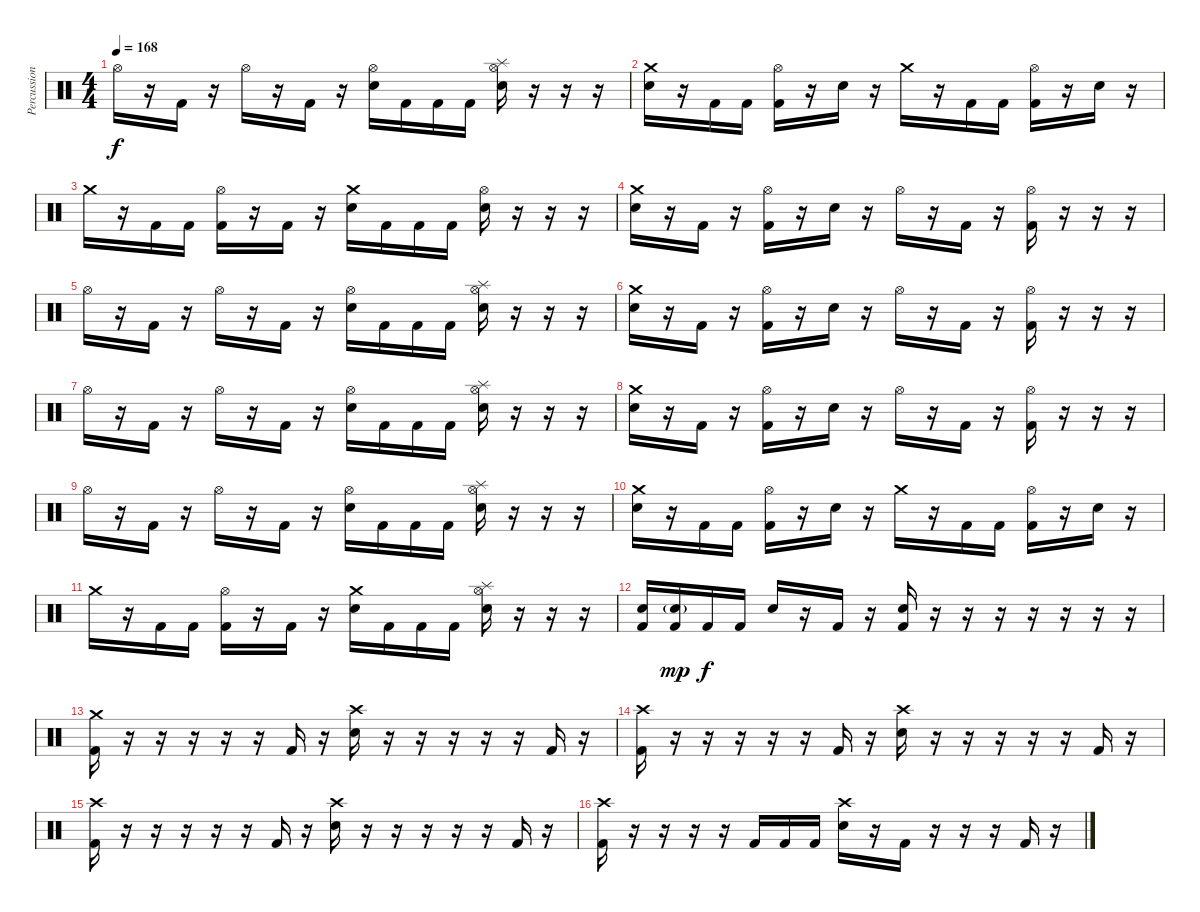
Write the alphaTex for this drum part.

\track ("Percussion" "Percussion") {instrument percussion}
\staff {score}
\articulation defaults
\ts (4 4)
\tempo 168
\clef neutral
\ks c "Hi-Hat (open)".16{dy f}
r.16 "Kick (hit) 2".16 r.16 "Hi-Hat (open)".16 r.16 "Kick (hit) 2".16 r.16 ("Hi-Hat (open)" "Electric Snare (hit)").16 "Kick (hit) 2".16 "Kick (hit) 2".16 "Kick (hit) 2".16 ("Hi-Hat (open)" "Splash (hit)" "Electric Snare (hit)").16 r.16 r.16 r.16 |
("Crash medium (hit)" "Electric Snare (hit)").16 r.16 "Kick (hit) 2".16 "Kick (hit) 2".16 ("Hi-Hat (open)" "Kick (hit) 2").16 r.16 "Electric Snare (hit)".16 r.16 "Crash medium (hit)".16 r.16 "Kick (hit) 2".16 "Kick (hit) 2".16 ("Hi-Hat (open)" "Kick (hit) 2").16 r.16 "Electric Snare (hit)".16 r.16 |
"Crash medium (hit)".16 r.16 "Kick (hit) 2".16 "Kick (hit) 2".16 ("Hi-Hat (open)" "Kick (hit) 2").16 r.16 "Kick (hit) 2".16 r.16 ("Crash medium (hit)" "Electric Snare (hit)").16 "Kick (hit) 2".16 "Kick (hit) 2".16 "Kick (hit) 2".16 ("Hi-Hat (open)" "Electric Snare (hit)").16 r.16 r.16 r.16 |
("Crash medium (hit)" "Electric Snare (hit)").16 r.16 "Kick (hit) 2".16 r.16 ("Hi-Hat (open)" "Kick (hit) 2").16 r.16 "Electric Snare (hit)".16 r.16 "Hi-Hat (open)".16 r.16 "Kick (hit) 2".16 r.16 ("Hi-Hat (open)" "Kick (hit) 2").16 r.16 r.16 r.16 |
"Hi-Hat (open)".16 r.16 "Kick (hit) 2".16 r.16 "Hi-Hat (open)".16 r.16 "Kick (hit) 2".16 r.16 ("Hi-Hat (open)" "Electric Snare (hit)").16 "Kick (hit) 2".16 "Kick (hit) 2".16 "Kick (hit) 2".16 ("Hi-Hat (open)" "Splash (hit)" "Electric Snare (hit)").16 r.16 r.16 r.16 |
("Crash medium (hit)" "Electric Snare (hit)").16 r.16 "Kick (hit) 2".16 r.16 ("Hi-Hat (open)" "Kick (hit) 2").16 r.16 "Electric Snare (hit)".16 r.16 "Hi-Hat (open)".16 r.16 "Kick (hit) 2".16 r.16 ("Hi-Hat (open)" "Kick (hit) 2").16 r.16 r.16 r.16 |
"Hi-Hat (open)".16 r.16 "Kick (hit) 2".16 r.16 "Hi-Hat (open)".16 r.16 "Kick (hit) 2".16 r.16 ("Hi-Hat (open)" "Electric Snare (hit)").16 "Kick (hit) 2".16 "Kick (hit) 2".16 "Kick (hit) 2".16 ("Hi-Hat (open)" "Splash (hit)" "Electric Snare (hit)").16 r.16 r.16 r.16 |
("Crash medium (hit)" "Electric Snare (hit)").16 r.16 "Kick (hit) 2".16 r.16 ("Hi-Hat (open)" "Kick (hit) 2").16 r.16 "Electric Snare (hit)".16 r.16 "Hi-Hat (open)".16 r.16 "Kick (hit) 2".16 r.16 ("Hi-Hat (open)" "Kick (hit) 2").16 r.16 r.16 r.16 |
"Hi-Hat (open)".16 r.16 "Kick (hit) 2".16 r.16 "Hi-Hat (open)".16 r.16 "Kick (hit) 2".16 r.16 ("Hi-Hat (open)" "Electric Snare (hit)").16 "Kick (hit) 2".16 "Kick (hit) 2".16 "Kick (hit) 2".16 ("Hi-Hat (open)" "Splash (hit)" "Electric Snare (hit)").16 r.16 r.16 r.16 |
("Crash medium (hit)" "Electric Snare (hit)").16 r.16 "Kick (hit) 2".16 "Kick (hit) 2".16 ("Hi-Hat (open)" "Kick (hit) 2").16 r.16 "Electric Snare (hit)".16 r.16 "Crash medium (hit)".16 r.16 "Kick (hit) 2".16 "Kick (hit) 2".16 ("Hi-Hat (open)" "Kick (hit) 2").16 r.16 "Electric Snare (hit)".16 r.16 |
"Crash medium (hit)".16 r.16 "Kick (hit) 2".16 "Kick (hit) 2".16 ("Hi-Hat (open)" "Kick (hit) 2").16 r.16 "Kick (hit) 2".16 r.16 ("Crash medium (hit)" "Electric Snare (hit)").16 "Kick (hit) 2".16 "Kick (hit) 2".16 "Kick (hit) 2".16 ("Hi-Hat (open)" "Splash (hit)" "Electric Snare (hit)").16 r.16 r.16 r.16 |
("Electric Snare (hit)" "Kick (hit) 2").16 ("Electric Snare (hit)"{g} "Kick (hit) 2").16{dy mp} "Kick (hit) 2".16{dy f} "Kick (hit) 2".16 "Electric Snare (hit)".16 r.16 "Kick (hit) 2".16 r.16 ("Electric Snare (hit)" "Kick (hit) 2").16 r.16 r.16 r.16 r.16 r.16 r.16 r.16 |
("Crash medium (hit)" "Kick (hit) 2").16 r.16 r.16 r.16 r.16 r.16 "Kick (hit) 2".16 r.16 ("Crash high (hit)" "Electric Snare (hit)").16 r.16 r.16 r.16 r.16 r.16 "Kick (hit) 2".16 r.16 |
("Crash high (hit)" "Kick (hit) 2").16 r.16 r.16 r.16 r.16 r.16 "Kick (hit) 2".16 r.16 ("Crash high (hit)" "Electric Snare (hit)").16 r.16 r.16 r.16 r.16 r.16 "Kick (hit) 2".16 r.16 |
("Crash high (hit)" "Kick (hit) 2").16 r.16 r.16 r.16 r.16 r.16 "Kick (hit) 2".16 r.16 ("Crash high (hit)" "Electric Snare (hit)").16 r.16 r.16 r.16 r.16 r.16 "Kick (hit) 2".16 r.16 |
("Crash high (hit)" "Kick (hit) 2").16 r.16 r.16 r.16 r.16 "Kick (hit) 2".16 "Kick (hit) 2".16 "Kick (hit) 2".16 ("Crash high (hit)" "Electric Snare (hit)").16 r.16 "Kick (hit) 2".16 r.16 r.16 r.16 "Kick (hit) 2".16 r.16
